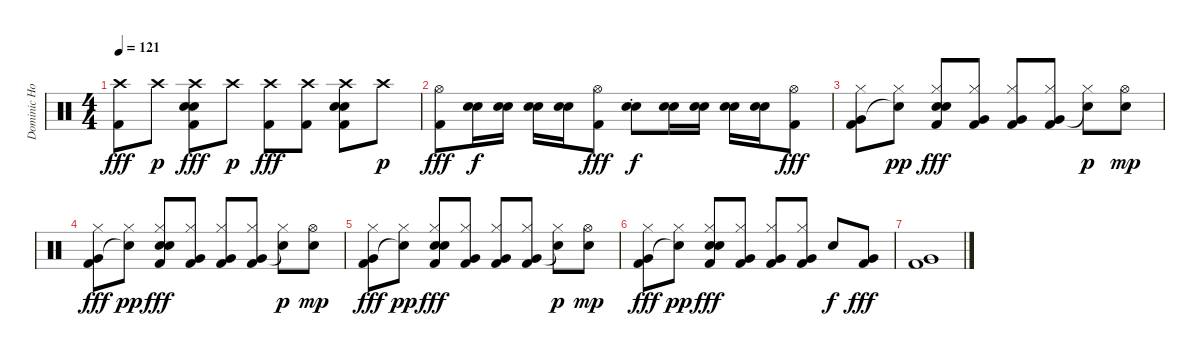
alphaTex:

\track ("Dominic Howard" "Dominic Ho") {instrument percussion}
\staff {score}
\articulation defaults
\ts (4 4)
\tempo 121
\clef neutral
\ks c
("Crash high (hit)" "Kick (hit) 2").8{dy fff} "Crash high (hit)".8{dy p} ("Crash high (hit)" "Electric Snare (hit)" "Electric Snare (hit)" "Kick (hit) 2").8{dy fff} "Crash high (hit)".8{dy p} ("Crash high (hit)" "Kick (hit) 2").8{dy fff} ("Crash high (hit)" "Kick (hit) 2").8 ("Crash high (hit)" "Electric Snare (hit)" "Electric Snare (hit)" "Kick (hit) 2").8 "Crash high (hit)".8{dy p} |
("Hi-Hat (open)" "Kick (hit) 2").8{dy fff} ("Electric Snare (hit)" "Electric Snare (hit)").16{dy f} ("Electric Snare (hit)" "Electric Snare (hit)").16 ("Electric Snare (hit)" "Electric Snare (hit)").16 ("Electric Snare (hit)" "Electric Snare (hit)").16 ("Hi-Hat (open)" "Kick (hit) 2").8{dy fff} ("Electric Snare (hit)" "Electric Snare (hit)"{st}).8{dy f} ("Electric Snare (hit)" "Electric Snare (hit)").16 ("Electric Snare (hit)" "Electric Snare (hit)").16 ("Electric Snare (hit)" "Electric Snare (hit)").16 ("Electric Snare (hit)" "Electric Snare (hit)").16 ("Hi-Hat (open)" "Kick (hit) 2").8{dy fff} |
("Hi-Hat (closed)" "Very Low Tom (hit)" "Kick (hit) 2").8 ("Hi-Hat (closed)" "Snare (hit)"{t}).8{dy pp} ("Hi-Hat (closed)" "Electric Snare (hit)" "Hand Clap (hit)" "Kick (hit) 2").8{dy fff} ("Hi-Hat (closed)" "Very Low Tom (hit)" "Kick (hit) 2").8 ("Hi-Hat (closed)" "Very Low Tom (hit)" "Kick (hit) 2").8 ("Hi-Hat (closed)" "Very Low Tom (hit)" "Kick (hit) 2").8 ("Hi-Hat (closed)" "Snare (hit)"{t}).8{dy p} ("Hi-Hat (open)" "Electric Snare (hit)").8{dy mp} |
("Hi-Hat (closed)" "Very Low Tom (hit)" "Kick (hit) 2").8{dy fff} ("Hi-Hat (closed)" "Snare (hit)"{t}).8{dy pp} ("Hi-Hat (closed)" "Electric Snare (hit)" "Hand Clap (hit)" "Kick (hit) 2").8{dy fff} ("Hi-Hat (closed)" "Very Low Tom (hit)" "Kick (hit) 2").8 ("Hi-Hat (closed)" "Very Low Tom (hit)" "Kick (hit) 2").8 ("Hi-Hat (closed)" "Very Low Tom (hit)" "Kick (hit) 2").8 ("Hi-Hat (closed)" "Snare (hit)"{t}).8{dy p} ("Hi-Hat (open)" "Electric Snare (hit)").8{dy mp} |
("Hi-Hat (closed)" "Very Low Tom (hit)" "Kick (hit) 2").8{dy fff} ("Hi-Hat (closed)" "Snare (hit)"{t}).8{dy pp} ("Hi-Hat (closed)" "Electric Snare (hit)" "Hand Clap (hit)" "Kick (hit) 2").8{dy fff} ("Hi-Hat (closed)" "Very Low Tom (hit)" "Kick (hit) 2").8 ("Hi-Hat (closed)" "Very Low Tom (hit)" "Kick (hit) 2").8 ("Hi-Hat (closed)" "Very Low Tom (hit)" "Kick (hit) 2").8 ("Hi-Hat (closed)" "Snare (hit)"{t}).8{dy p} ("Hi-Hat (open)" "Electric Snare (hit)").8{dy mp} |
("Hi-Hat (closed)" "Very Low Tom (hit)" "Kick (hit) 2").8{dy fff} ("Hi-Hat (closed)" "Snare (hit)"{t}).8{dy pp} ("Hi-Hat (closed)" "Electric Snare (hit)" "Hand Clap (hit)" "Kick (hit) 2").8{dy fff} ("Hi-Hat (closed)" "Very Low Tom (hit)" "Kick (hit) 2").8 ("Hi-Hat (closed)" "Very Low Tom (hit)" "Kick (hit) 2").8 ("Hi-Hat (closed)" "Very Low Tom (hit)" "Kick (hit) 2").8 "Electric Snare (hit)".8{dy f} ("Very Low Tom (hit)" "Kick (hit) 2").8{dy fff} |
("Very Low Tom (hit)" "Kick (hit) 2").1
